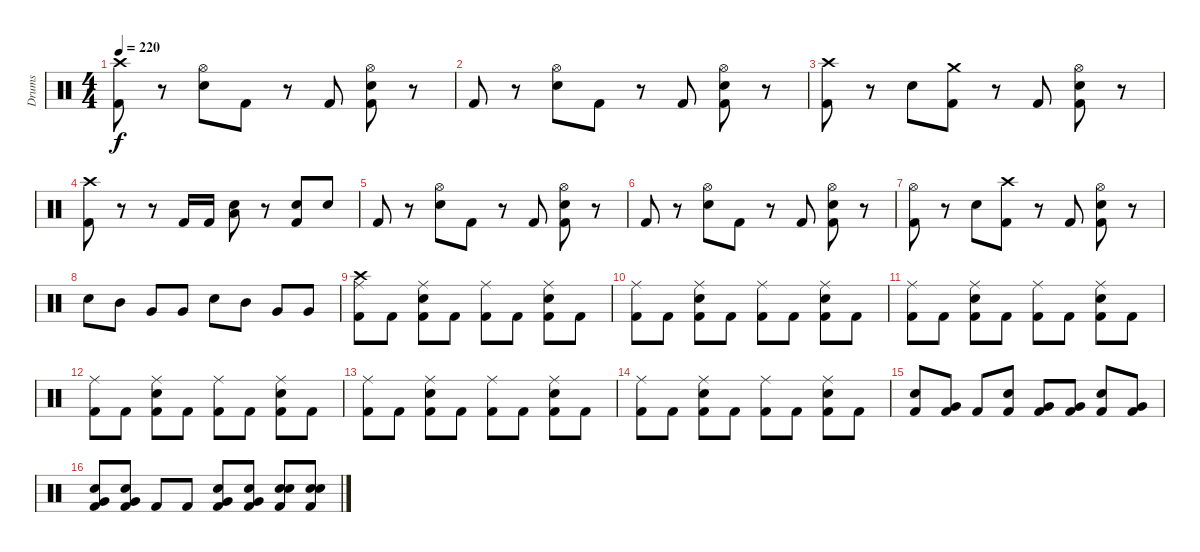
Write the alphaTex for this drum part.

\track ("Drums" "Drums") {instrument percussion}
\staff {score}
\articulation defaults
\ts (4 4)
\tempo 220
\clef neutral
\ks c
("Crash high (hit)" "Kick (hit) 2").8{dy f} r.8 ("Electric Snare (hit)" "Hi-Hat (open)").8 "Kick (hit) 2".8 r.8 "Kick (hit) 2".8 ("Electric Snare (hit)" "Hi-Hat (open)" "Kick (hit) 2").8 r.8 |
"Kick (hit) 2".8 r.8 ("Electric Snare (hit)" "Hi-Hat (open)").8 "Kick (hit) 2".8 r.8 "Kick (hit) 2".8 ("Electric Snare (hit)" "Hi-Hat (open)" "Kick (hit) 2").8 r.8 |
("Crash high (hit)" "Kick (hit) 2").8 r.8 "Electric Snare (hit)".8 ("Crash medium (hit)" "Kick (hit) 2").8 r.8 "Kick (hit) 2".8 ("Electric Snare (hit)" "Hi-Hat (open)" "Kick (hit) 2").8 r.8 |
("Crash high (hit)" "Kick (hit) 2").8 r.8 r.8 "Kick (hit) 2".16 "Kick (hit) 2".16 ("Electric Snare (hit)" "Low Floor Tom (hit)").8 r.8 ("Electric Snare (hit)" "Kick (hit) 2").8 "Electric Snare (hit)".8 |
"Kick (hit) 2".8 r.8 ("Electric Snare (hit)" "Hi-Hat (open)").8 "Kick (hit) 2".8 r.8 "Kick (hit) 2".8 ("Electric Snare (hit)" "Hi-Hat (open)" "Kick (hit) 2").8 r.8 |
"Kick (hit) 2".8 r.8 ("Electric Snare (hit)" "Hi-Hat (open)").8 "Kick (hit) 2".8 r.8 "Kick (hit) 2".8 ("Electric Snare (hit)" "Hi-Hat (open)" "Kick (hit) 2").8 r.8 |
("Hi-Hat (open)" "Kick (hit) 2").8 r.8 "Electric Snare (hit)".8 ("Crash high (hit)" "Kick (hit) 2").8 r.8 "Kick (hit) 2".8 ("Electric Snare (hit)" "Hi-Hat (open)" "Kick (hit) 2").8 r.8 |
"Electric Snare (hit)".8 "Mid Tom (hit)".8 "Very Low Tom (hit)".8 "Very Low Tom (hit)".8 "Electric Snare (hit)".8 "Mid Tom (hit)".8 "Very Low Tom (hit)".8 "Very Low Tom (hit)".8 |
("Crash high (hit)" "Ride (middle)" "Kick (hit) 2").8 "Kick (hit) 2".8 ("Electric Snare (hit)" "Ride (middle)" "Kick (hit) 2").8 "Kick (hit) 2".8 ("Ride (middle)" "Kick (hit) 2").8 "Kick (hit) 2".8 ("Electric Snare (hit)" "Ride (middle)" "Kick (hit) 2").8 "Kick (hit) 2".8 |
("Ride (middle)" "Kick (hit) 2").8 "Kick (hit) 2".8 ("Electric Snare (hit)" "Ride (middle)" "Kick (hit) 2").8 "Kick (hit) 2".8 ("Ride (middle)" "Kick (hit) 2").8 "Kick (hit) 2".8 ("Electric Snare (hit)" "Ride (middle)" "Kick (hit) 2").8 "Kick (hit) 2".8 |
("Ride (middle)" "Kick (hit) 2").8 "Kick (hit) 2".8 ("Electric Snare (hit)" "Ride (middle)" "Kick (hit) 2").8 "Kick (hit) 2".8 ("Ride (middle)" "Kick (hit) 2").8 "Kick (hit) 2".8 ("Electric Snare (hit)" "Ride (middle)" "Kick (hit) 2").8 "Kick (hit) 2".8 |
("Ride (middle)" "Kick (hit) 2").8 "Kick (hit) 2".8 ("Electric Snare (hit)" "Ride (middle)" "Kick (hit) 2").8 "Kick (hit) 2".8 ("Ride (middle)" "Kick (hit) 2").8 "Kick (hit) 2".8 ("Electric Snare (hit)" "Ride (middle)" "Kick (hit) 2").8 "Kick (hit) 2".8 |
("Ride (middle)" "Kick (hit) 2").8 "Kick (hit) 2".8 ("Electric Snare (hit)" "Ride (middle)" "Kick (hit) 2").8 "Kick (hit) 2".8 ("Ride (middle)" "Kick (hit) 2").8 "Kick (hit) 2".8 ("Electric Snare (hit)" "Ride (middle)" "Kick (hit) 2").8 "Kick (hit) 2".8 |
("Ride (middle)" "Kick (hit) 2").8 "Kick (hit) 2".8 ("Electric Snare (hit)" "Ride (middle)" "Kick (hit) 2").8 "Kick (hit) 2".8 ("Ride (middle)" "Kick (hit) 2").8 "Kick (hit) 2".8 ("Electric Snare (hit)" "Ride (middle)" "Kick (hit) 2").8 "Kick (hit) 2".8 |
("Electric Snare (hit)" "Kick (hit) 2").8 ("Very Low Tom (hit)" "Kick (hit) 2").8 "Kick (hit) 2".8 ("Electric Snare (hit)" "Kick (hit) 2").8 ("Very Low Tom (hit)" "Kick (hit) 2").8 ("Very Low Tom (hit)" "Kick (hit) 2").8 ("Electric Snare (hit)" "Kick (hit) 2").8 ("Very Low Tom (hit)" "Kick (hit) 2").8 |
("Electric Snare (hit)" "Very Low Tom (hit)" "Kick (hit) 2").8 ("Electric Snare (hit)" "Very Low Tom (hit)" "Kick (hit) 2").8 "Kick (hit) 2".8 "Kick (hit) 2".8 ("Electric Snare (hit)" "Very Low Tom (hit)" "Kick (hit) 2").8 ("Electric Snare (hit)" "Very Low Tom (hit)" "Kick (hit) 2").8 ("Electric Snare (hit)" "Electric Snare (hit)" "Kick (hit) 2").8 ("Electric Snare (hit)" "Electric Snare (hit)" "Kick (hit) 2").8
